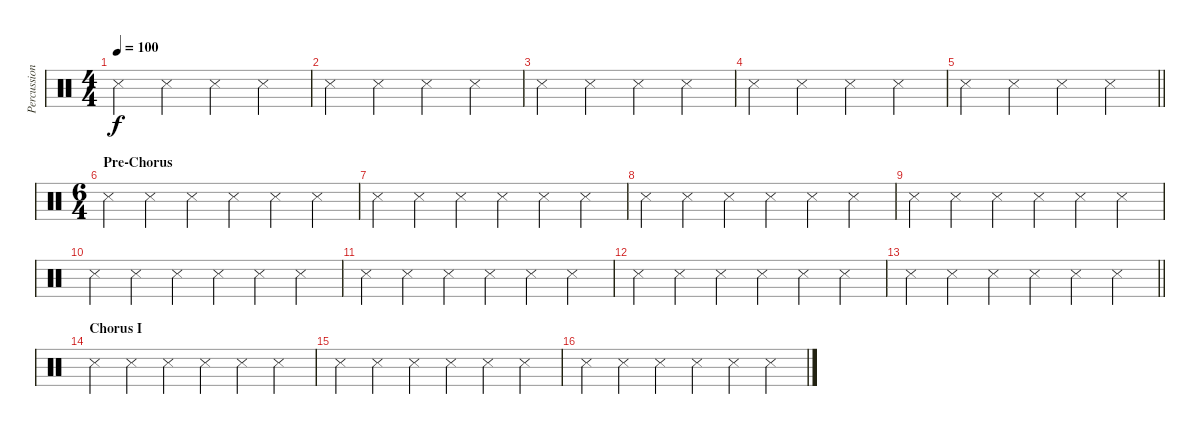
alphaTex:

\track ("Percussion" "Percussion") {mute instrument percussion}
\staff {score}
\articulation defaults
\ts (4 4)
\tempo 100
\clef neutral
\ks c "Metronome (hit)".4{dy f} "Snare (side stick) 3".4 "Snare (side stick) 3".4 "Snare (side stick) 3".4
|
"Metronome (hit)".4 "Snare (side stick) 3".4 "Snare (side stick) 3".4 "Snare (side stick) 3".4 |
"Metronome (hit)".4 "Snare (side stick) 3".4 "Snare (side stick) 3".4 "Snare (side stick) 3".4 |
"Metronome (hit)".4 "Snare (side stick) 3".4 "Snare (side stick) 3".4 "Snare (side stick) 3".4 |
\barLineRight lightlight "Metronome (hit)".4 "Snare (side stick) 3".4 "Snare (side stick) 3".4 "Snare (side stick) 3".4
|
\ts (6 4)
\section ("" "Pre-Chorus")
"Metronome (hit)".4 "Snare (side stick) 3".4 "Snare (side stick) 3".4 "Snare (side stick) 3".4 "Snare (side stick) 3".4 "Snare (side stick) 3".4 |
"Metronome (hit)".4 "Snare (side stick) 3".4 "Snare (side stick) 3".4 "Snare (side stick) 3".4 "Snare (side stick) 3".4 "Snare (side stick) 3".4 |
"Metronome (hit)".4 "Snare (side stick) 3".4 "Snare (side stick) 3".4 "Snare (side stick) 3".4 "Snare (side stick) 3".4 "Snare (side stick) 3".4 |
"Metronome (hit)".4 "Snare (side stick) 3".4 "Snare (side stick) 3".4 "Snare (side stick) 3".4 "Snare (side stick) 3".4 "Snare (side stick) 3".4 |
"Metronome (hit)".4 "Snare (side stick) 3".4 "Snare (side stick) 3".4 "Snare (side stick) 3".4 "Snare (side stick) 3".4 "Snare (side stick) 3".4 |
"Metronome (hit)".4 "Snare (side stick) 3".4 "Snare (side stick) 3".4 "Snare (side stick) 3".4 "Snare (side stick) 3".4 "Snare (side stick) 3".4 |
"Metronome (hit)".4 "Snare (side stick) 3".4 "Snare (side stick) 3".4 "Snare (side stick) 3".4 "Snare (side stick) 3".4 "Snare (side stick) 3".4 |
\barLineRight lightlight "Metronome (hit)".4 "Snare (side stick) 3".4 "Snare (side stick) 3".4 "Snare (side stick) 3".4 "Snare (side stick) 3".4 "Snare (side stick) 3".4
|
\section ("" "Chorus I")
"Metronome (hit)".4 "Snare (side stick) 3".4 "Snare (side stick) 3".4 "Snare (side stick) 3".4 "Snare (side stick) 3".4 "Snare (side stick) 3".4 |
"Metronome (hit)".4 "Snare (side stick) 3".4 "Snare (side stick) 3".4 "Snare (side stick) 3".4 "Snare (side stick) 3".4 "Snare (side stick) 3".4 |
"Metronome (hit)".4 "Snare (side stick) 3".4 "Snare (side stick) 3".4 "Snare (side stick) 3".4 "Snare (side stick) 3".4 "Snare (side stick) 3".4
